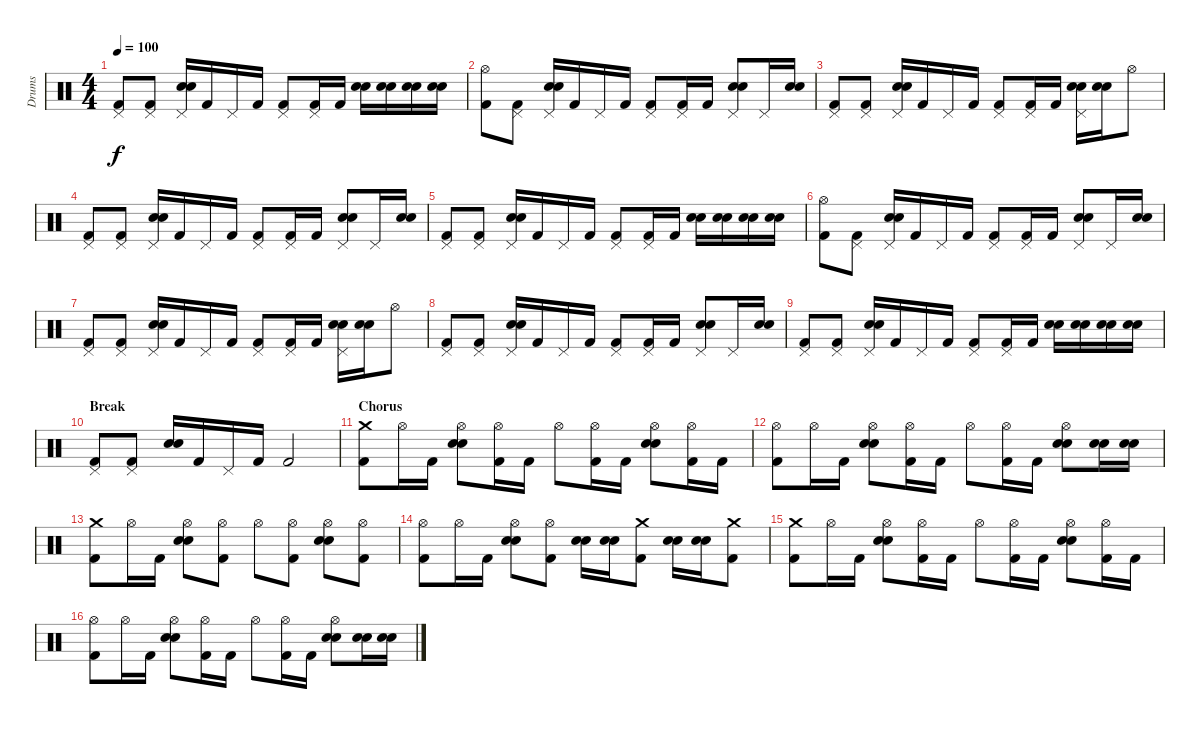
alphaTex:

\track ("Drums" "Drums") {instrument percussion}
\staff {score}
\articulation defaults
\ts (4 4)
\tempo 100
\clef neutral
\ks c
("Pedal Hi-Hat (hit)" "Kick (hit) 2").8{dy f} ("Pedal Hi-Hat (hit)" "Kick (hit) 2").8 ("Pedal Hi-Hat (hit)" "Electric Snare (hit)" "Snare (hit) 2").16 "Kick (hit) 2".16 "Pedal Hi-Hat (hit)".16 "Kick (hit) 2".16 ("Pedal Hi-Hat (hit)" "Kick (hit) 2").8 ("Pedal Hi-Hat (hit)" "Kick (hit) 2").16 "Kick (hit) 2".16 ("Electric Snare (hit)" "Snare (hit) 2").16 ("Electric Snare (hit)" "Snare (hit) 2").16 ("Electric Snare (hit)" "Snare (hit) 2").16 ("Electric Snare (hit)" "Snare (hit) 2").16 |
("Hi-Hat (open)" "Kick (hit) 2").8 ("Pedal Hi-Hat (hit)" "Kick (hit) 2").8 ("Pedal Hi-Hat (hit)" "Electric Snare (hit)" "Snare (hit) 2").16 "Kick (hit) 2".16 "Pedal Hi-Hat (hit)".16 "Kick (hit) 2".16 ("Pedal Hi-Hat (hit)" "Kick (hit) 2").8 ("Pedal Hi-Hat (hit)" "Kick (hit) 2").16 "Kick (hit) 2".16 ("Pedal Hi-Hat (hit)" "Electric Snare (hit)" "Snare (hit) 2").8 "Pedal Hi-Hat (hit)".16 ("Electric Snare (hit)" "Snare (hit) 2").16 |
("Pedal Hi-Hat (hit)" "Kick (hit) 2").8 ("Pedal Hi-Hat (hit)" "Kick (hit) 2").8 ("Pedal Hi-Hat (hit)" "Electric Snare (hit)" "Snare (hit) 2").16 "Kick (hit) 2".16 "Pedal Hi-Hat (hit)".16 "Kick (hit) 2".16 ("Pedal Hi-Hat (hit)" "Kick (hit) 2").8 ("Pedal Hi-Hat (hit)" "Kick (hit) 2").16 "Kick (hit) 2".16 ("Pedal Hi-Hat (hit)" "Electric Snare (hit)" "Snare (hit) 2").16 ("Electric Snare (hit)" "Snare (hit) 2").16 "Hi-Hat (open)".8 |
("Pedal Hi-Hat (hit)" "Kick (hit) 2").8 ("Pedal Hi-Hat (hit)" "Kick (hit) 2").8 ("Pedal Hi-Hat (hit)" "Electric Snare (hit)" "Snare (hit) 2").16 "Kick (hit) 2".16 "Pedal Hi-Hat (hit)".16 "Kick (hit) 2".16 ("Pedal Hi-Hat (hit)" "Kick (hit) 2").8 ("Pedal Hi-Hat (hit)" "Kick (hit) 2").16 "Kick (hit) 2".16 ("Pedal Hi-Hat (hit)" "Electric Snare (hit)" "Snare (hit) 2").8 "Pedal Hi-Hat (hit)".16 ("Electric Snare (hit)" "Snare (hit) 2").16 |
("Pedal Hi-Hat (hit)" "Kick (hit) 2").8 ("Pedal Hi-Hat (hit)" "Kick (hit) 2").8 ("Pedal Hi-Hat (hit)" "Electric Snare (hit)" "Snare (hit) 2").16 "Kick (hit) 2".16 "Pedal Hi-Hat (hit)".16 "Kick (hit) 2".16 ("Pedal Hi-Hat (hit)" "Kick (hit) 2").8 ("Pedal Hi-Hat (hit)" "Kick (hit) 2").16 "Kick (hit) 2".16 ("Electric Snare (hit)" "Snare (hit) 2").16 ("Electric Snare (hit)" "Snare (hit) 2").16 ("Electric Snare (hit)" "Snare (hit) 2").16 ("Electric Snare (hit)" "Snare (hit) 2").16 |
("Hi-Hat (open)" "Kick (hit) 2").8 ("Pedal Hi-Hat (hit)" "Kick (hit) 2").8 ("Pedal Hi-Hat (hit)" "Electric Snare (hit)" "Snare (hit) 2").16 "Kick (hit) 2".16 "Pedal Hi-Hat (hit)".16 "Kick (hit) 2".16 ("Pedal Hi-Hat (hit)" "Kick (hit) 2").8 ("Pedal Hi-Hat (hit)" "Kick (hit) 2").16 "Kick (hit) 2".16 ("Pedal Hi-Hat (hit)" "Electric Snare (hit)" "Snare (hit) 2").8 "Pedal Hi-Hat (hit)".16 ("Electric Snare (hit)" "Snare (hit) 2").16 |
("Pedal Hi-Hat (hit)" "Kick (hit) 2").8 ("Pedal Hi-Hat (hit)" "Kick (hit) 2").8 ("Pedal Hi-Hat (hit)" "Electric Snare (hit)" "Snare (hit) 2").16 "Kick (hit) 2".16 "Pedal Hi-Hat (hit)".16 "Kick (hit) 2".16 ("Pedal Hi-Hat (hit)" "Kick (hit) 2").8 ("Pedal Hi-Hat (hit)" "Kick (hit) 2").16 "Kick (hit) 2".16 ("Pedal Hi-Hat (hit)" "Electric Snare (hit)" "Snare (hit) 2").16 ("Electric Snare (hit)" "Snare (hit) 2").16 "Hi-Hat (open)".8 |
("Pedal Hi-Hat (hit)" "Kick (hit) 2").8 ("Pedal Hi-Hat (hit)" "Kick (hit) 2").8 ("Pedal Hi-Hat (hit)" "Electric Snare (hit)" "Snare (hit) 2").16 "Kick (hit) 2".16 "Pedal Hi-Hat (hit)".16 "Kick (hit) 2".16 ("Pedal Hi-Hat (hit)" "Kick (hit) 2").8 ("Pedal Hi-Hat (hit)" "Kick (hit) 2").16 "Kick (hit) 2".16 ("Pedal Hi-Hat (hit)" "Electric Snare (hit)" "Snare (hit) 2").8 "Pedal Hi-Hat (hit)".16 ("Electric Snare (hit)" "Snare (hit) 2").16 |
("Pedal Hi-Hat (hit)" "Kick (hit) 2").8 ("Pedal Hi-Hat (hit)" "Kick (hit) 2").8 ("Pedal Hi-Hat (hit)" "Electric Snare (hit)" "Snare (hit) 2").16 "Kick (hit) 2".16 "Pedal Hi-Hat (hit)".16 "Kick (hit) 2".16 ("Pedal Hi-Hat (hit)" "Kick (hit) 2").8 ("Pedal Hi-Hat (hit)" "Kick (hit) 2").16 "Kick (hit) 2".16 ("Electric Snare (hit)" "Snare (hit) 2").16 ("Electric Snare (hit)" "Snare (hit) 2").16 ("Electric Snare (hit)" "Snare (hit) 2").16 ("Electric Snare (hit)" "Snare (hit) 2").16 |
\section ("" "Break")
("Pedal Hi-Hat (hit)" "Kick (hit) 2").8 ("Pedal Hi-Hat (hit)" "Kick (hit) 2").8 ("Electric Snare (hit)" "Snare (hit) 2").16 "Kick (hit) 2".16 "Pedal Hi-Hat (hit)".16 "Kick (hit) 2".16 "Kick (hit) 2".2 |
\section ("" "Chorus")
("Crash medium (hit)" "Kick (hit) 2").8 "Hi-Hat (open)".16 "Kick (hit) 2".16 ("Hi-Hat (open)" "Electric Snare (hit)" "Snare (hit) 2").8 ("Hi-Hat (open)" "Kick (hit) 2").16 "Kick (hit) 2".16 "Hi-Hat (open)".8 ("Hi-Hat (open)" "Kick (hit) 2").16 "Kick (hit) 2".16 ("Hi-Hat (open)" "Electric Snare (hit)" "Snare (hit) 2").8 ("Hi-Hat (open)" "Kick (hit) 2").16 "Kick (hit) 2".16 |
("Hi-Hat (open)" "Kick (hit) 2").8 "Hi-Hat (open)".16 "Kick (hit) 2".16 ("Hi-Hat (open)" "Electric Snare (hit)" "Snare (hit) 2").8 ("Hi-Hat (open)" "Kick (hit) 2").16 "Kick (hit) 2".16 "Hi-Hat (open)".8 ("Hi-Hat (open)" "Kick (hit) 2").16 "Kick (hit) 2".16 ("Hi-Hat (open)" "Electric Snare (hit)" "Snare (hit) 2").8 ("Electric Snare (hit)" "Snare (hit) 2").16 ("Electric Snare (hit)" "Snare (hit) 2").16 |
("Crash medium (hit)" "Kick (hit) 2").8 "Hi-Hat (open)".16 "Kick (hit) 2".16 ("Hi-Hat (open)" "Electric Snare (hit)" "Snare (hit) 2").8 ("Hi-Hat (open)" "Kick (hit) 2").8 "Hi-Hat (open)".8 ("Hi-Hat (open)" "Kick (hit) 2").8 ("Hi-Hat (open)" "Electric Snare (hit)" "Snare (hit) 2").8 ("Hi-Hat (open)" "Kick (hit) 2").8 |
("Hi-Hat (open)" "Kick (hit) 2").8 "Hi-Hat (open)".16 "Kick (hit) 2".16 ("Hi-Hat (open)" "Electric Snare (hit)" "Snare (hit) 2").8 ("Hi-Hat (open)" "Kick (hit) 2").8 ("Electric Snare (hit)" "Snare (hit) 2").16 ("Electric Snare (hit)" "Snare (hit) 2").16 ("Crash medium (hit)" "Kick (hit) 2").8 ("Electric Snare (hit)" "Snare (hit) 2").16 ("Electric Snare (hit)" "Snare (hit) 2").16 ("Crash medium (hit)" "Kick (hit) 2").8 |
("Crash medium (hit)" "Kick (hit) 2").8 "Hi-Hat (open)".16 "Kick (hit) 2".16 ("Hi-Hat (open)" "Electric Snare (hit)" "Snare (hit) 2").8 ("Hi-Hat (open)" "Kick (hit) 2").16 "Kick (hit) 2".16 "Hi-Hat (open)".8 ("Hi-Hat (open)" "Kick (hit) 2").16 "Kick (hit) 2".16 ("Hi-Hat (open)" "Electric Snare (hit)" "Snare (hit) 2").8 ("Hi-Hat (open)" "Kick (hit) 2").16 "Kick (hit) 2".16 |
("Hi-Hat (open)" "Kick (hit) 2").8 "Hi-Hat (open)".16 "Kick (hit) 2".16 ("Hi-Hat (open)" "Electric Snare (hit)" "Snare (hit) 2").8 ("Hi-Hat (open)" "Kick (hit) 2").16 "Kick (hit) 2".16 "Hi-Hat (open)".8 ("Hi-Hat (open)" "Kick (hit) 2").16 "Kick (hit) 2".16 ("Hi-Hat (open)" "Electric Snare (hit)" "Snare (hit) 2").8 ("Electric Snare (hit)" "Snare (hit) 2").16 ("Electric Snare (hit)" "Snare (hit) 2").16
